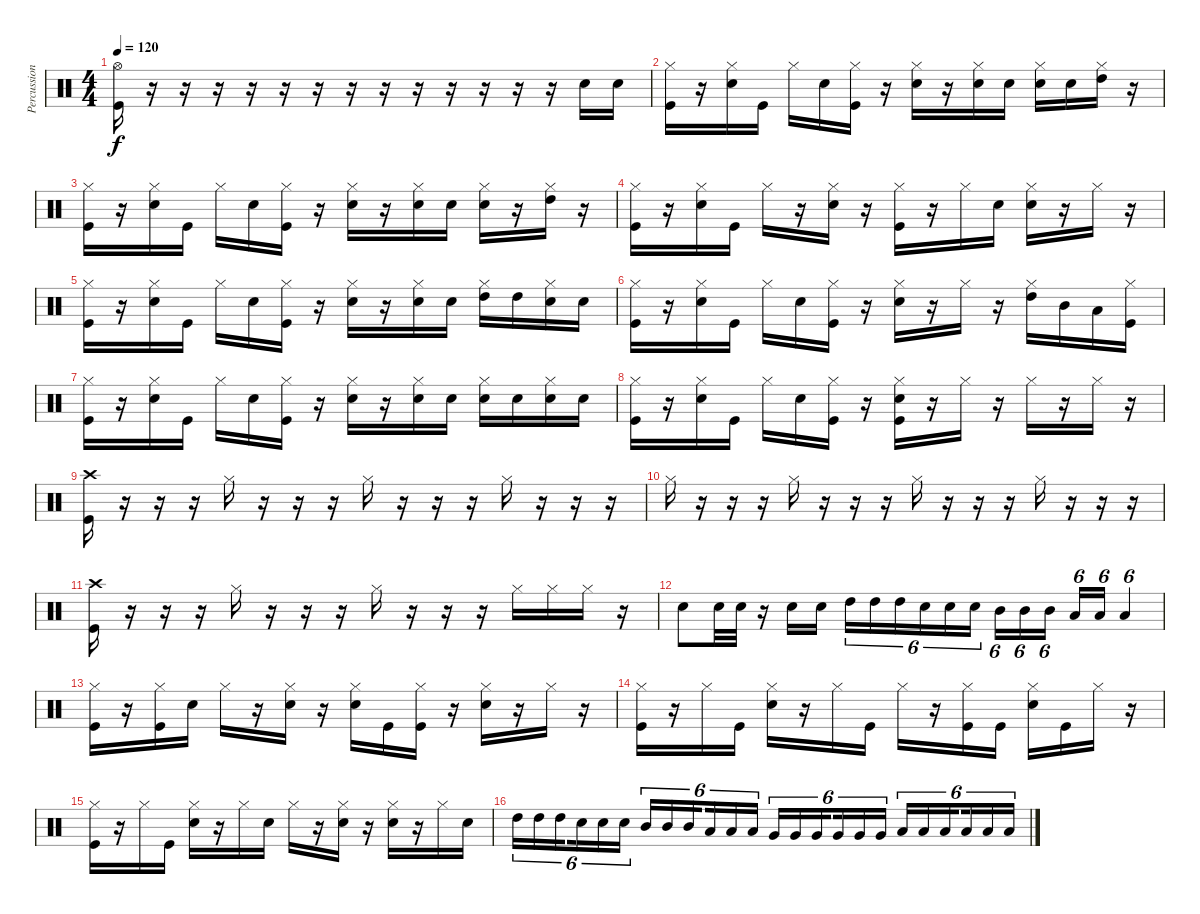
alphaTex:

\track ("Percussion" "Percussion") {instrument percussion}
\staff {score}
\articulation defaults
\ts (4 4)
\tempo 120
\clef neutral
\ks c
("Hi-Hat (open)" "Kick (hit)").16{dy f} r.16 r.16 r.16 r.16 r.16 r.16 r.16 r.16 r.16 r.16 r.16 r.16 r.16 "Snare (hit) 2".16 "Snare (hit) 2".16 |
("Hi-Hat (closed)" "Kick (hit)").16 r.16 ("Hi-Hat (closed)" "Snare (hit) 2").16 "Kick (hit)".16 "Hi-Hat (closed)".16 "Snare (hit) 2".16 ("Hi-Hat (closed)" "Kick (hit)").16 r.16 ("Hi-Hat (closed)" "Snare (hit) 2").16 r.16 ("Hi-Hat (closed)" "Snare (hit) 2").16 "Snare (hit) 2".16 ("Hi-Hat (closed)" "Snare (hit) 2").16 "Snare (hit) 2".16 ("Hi-Hat (closed)" "High Tom (hit)").16 r.16 |
("Hi-Hat (closed)" "Kick (hit)").16 r.16 ("Hi-Hat (closed)" "Snare (hit) 2").16 "Kick (hit)".16 "Hi-Hat (closed)".16 "Snare (hit) 2".16 ("Hi-Hat (closed)" "Kick (hit)").16 r.16 ("Hi-Hat (closed)" "Snare (hit) 2").16 r.16 ("Hi-Hat (closed)" "Snare (hit) 2").16 "Snare (hit) 2".16 ("Hi-Hat (closed)" "Snare (hit) 2").16 r.16 ("Hi-Hat (closed)" "High Tom (hit)").16 r.16 |
("Hi-Hat (closed)" "Kick (hit)").16 r.16 ("Hi-Hat (closed)" "Snare (hit) 2").16 "Kick (hit)".16 "Hi-Hat (closed)".16 r.16 ("Hi-Hat (closed)" "Snare (hit) 2").16 r.16 ("Hi-Hat (closed)" "Kick (hit)").16 r.16 "Hi-Hat (closed)".16 "Snare (hit) 2".16 ("Hi-Hat (closed)" "Snare (hit) 2").16 r.16 "Hi-Hat (closed)".16 r.16 |
("Hi-Hat (closed)" "Kick (hit)").16 r.16 ("Hi-Hat (closed)" "Snare (hit) 2").16 "Kick (hit)".16 "Hi-Hat (closed)".16 "Snare (hit) 2".16 ("Hi-Hat (closed)" "Kick (hit)").16 r.16 ("Hi-Hat (closed)" "Snare (hit) 2").16 r.16 ("Hi-Hat (closed)" "Snare (hit) 2").16 "Snare (hit) 2".16 ("Hi-Hat (closed)" "High Tom (hit)").16 "High Tom (hit)".16 ("Hi-Hat (closed)" "Snare (hit) 2").16 "Snare (hit) 2".16 |
("Hi-Hat (closed)" "Kick (hit)").16 r.16 ("Hi-Hat (closed)" "Snare (hit) 2").16 "Kick (hit)".16 "Hi-Hat (closed)".16 "Snare (hit) 2".16 ("Hi-Hat (closed)" "Kick (hit)").16 r.16 ("Hi-Hat (closed)" "Snare (hit) 2").16 r.16 "Hi-Hat (closed)".16 r.16 ("Hi-Hat (closed)" "High Tom (hit)").16 "Mid Tom (hit)".16 "Low Tom (hit)".16 ("Hi-Hat (closed)" "Kick (hit)").16 |
("Hi-Hat (closed)" "Kick (hit)").16 r.16 ("Hi-Hat (closed)" "Snare (hit) 2").16 "Kick (hit)".16 "Hi-Hat (closed)".16 "Snare (hit) 2".16 ("Hi-Hat (closed)" "Kick (hit)").16 r.16 ("Hi-Hat (closed)" "Snare (hit) 2").16 r.16 ("Hi-Hat (closed)" "Snare (hit) 2").16 "Snare (hit) 2".16 ("Hi-Hat (closed)" "Snare (hit) 2").16 "Snare (hit) 2".16 ("Hi-Hat (closed)" "Snare (hit) 2").16 "Snare (hit) 2".16 |
("Hi-Hat (closed)" "Kick (hit)").16 r.16 ("Hi-Hat (closed)" "Snare (hit) 2").16 "Kick (hit)".16 "Hi-Hat (closed)".16 "Snare (hit) 2".16 ("Hi-Hat (closed)" "Kick (hit)").16 r.16 ("Hi-Hat (closed)" "Snare (hit) 2" "Kick (hit)").16 r.16 "Hi-Hat (closed)".16 r.16 "Hi-Hat (closed)".16 r.16 "Hi-Hat (closed)".16 r.16 |
("Crash high (hit)" "Kick (hit)").16 r.16 r.16 r.16 "Hi-Hat (closed)".16 r.16 r.16 r.16 "Hi-Hat (closed)".16 r.16 r.16 r.16 "Hi-Hat (closed)".16 r.16 r.16 r.16 |
"Hi-Hat (closed)".16 r.16 r.16 r.16 "Hi-Hat (closed)".16 r.16 r.16 r.16 "Hi-Hat (closed)".16 r.16 r.16 r.16 "Hi-Hat (closed)".16 r.16 r.16 r.16 |
("Crash high (hit)" "Kick (hit)").16 r.16 r.16 r.16 "Hi-Hat (closed)".16 r.16 r.16 r.16 "Hi-Hat (closed)".16 r.16 r.16 r.16 "Hi-Hat (closed)".16 "Hi-Hat (closed)".16 "Hi-Hat (closed)".16 r.16 |
"Snare (hit) 2".8 "Snare (hit) 2".32 "Snare (hit) 2".32 r.16 "Snare (hit) 2".16 "Snare (hit) 2".16{beam splitsecondary} "High Tom (hit)".16{tu (6 4)} "High Tom (hit)".16{tu (6 4)} "High Tom (hit)".16{tu (6 4)} "Snare (hit) 2".16{tu (6 4)} "Snare (hit) 2".16{tu (6 4)} "Snare (hit) 2".16{tu (6 4) beam splitsecondary} "Mid Tom (hit)".16{tu (6 4)} "Mid Tom (hit)".16{tu (6 4)} "Mid Tom (hit)".16{tu (6 4)} "Low Tom (hit)".16{tu (6 4)} "Low Tom (hit)".16{tu (6 4)} "Low Tom (hit)".4{tu (6 4)} |
("Hi-Hat (closed)" "Kick (hit)").16 r.16 ("Hi-Hat (closed)" "Kick (hit)").16 "Snare (hit) 2".16 "Hi-Hat (closed)".16 r.16 ("Hi-Hat (closed)" "Snare (hit) 2").16 r.16 ("Hi-Hat (closed)" "Snare (hit) 2").16 "Kick (hit)".16 ("Hi-Hat (closed)" "Kick (hit)").16 r.16 ("Hi-Hat (closed)" "Snare (hit) 2").16 r.16 "Hi-Hat (closed)".16 r.16 |
("Hi-Hat (closed)" "Kick (hit)").16 r.16 "Hi-Hat (closed)".16 "Kick (hit)".16 ("Hi-Hat (closed)" "Snare (hit) 2").16 r.16 "Hi-Hat (closed)".16 "Kick (hit)".16 "Hi-Hat (closed)".16 r.16 ("Hi-Hat (closed)" "Kick (hit)").16 "Kick (hit)".16 ("Hi-Hat (closed)" "Snare (hit) 2").16 "Kick (hit)".16 "Hi-Hat (closed)".16 r.16 |
("Hi-Hat (closed)" "Kick (hit)").16 r.16 "Hi-Hat (closed)".16 "Kick (hit)".16 ("Hi-Hat (closed)" "Snare (hit) 2").16 r.16 "Hi-Hat (closed)".16 "Snare (hit) 2".16 "Hi-Hat (closed)".16 r.16 ("Hi-Hat (closed)" "Snare (hit) 2").16 r.16 ("Hi-Hat (closed)" "Snare (hit) 2").16 r.16 "Hi-Hat (closed)".16 "Snare (hit) 2".16 |
"High Tom (hit)".16{tu (6 4)} "High Tom (hit)".16{tu (6 4)} "High Tom (hit)".16{tu (6 4) beam splitsecondary} "Snare (hit) 2".16{tu (6 4)} "Snare (hit) 2".16{tu (6 4)} "Snare (hit) 2".16{tu (6 4)} "Mid Tom (hit)".16{tu (6 4)} "Mid Tom (hit)".16{tu (6 4)} "Mid Tom (hit)".16{tu (6 4) beam splitsecondary} "Low Tom (hit)".16{tu (6 4)} "Low Tom (hit)".16{tu (6 4)} "Low Tom (hit)".16{tu (6 4)} "Very Low Tom (hit)".16{tu (6 4)} "Very Low Tom (hit)".16{tu (6 4)} "Very Low Tom (hit)".16{tu (6 4) beam splitsecondary} "Very Low Tom (hit)".16{tu (6 4)} "Very Low Tom (hit)".16{tu (6 4)} "Very Low Tom (hit)".16{tu (6 4)} "Low Floor Tom (hit)".16{tu (6 4)} "Low Floor Tom (hit)".16{tu (6 4)} "Low Floor Tom (hit)".16{tu (6 4) beam splitsecondary} "Low Floor Tom (hit)".16{tu (6 4)} "Low Floor Tom (hit)".16{tu (6 4)} "Low Floor Tom (hit)".16{tu (6 4)}
